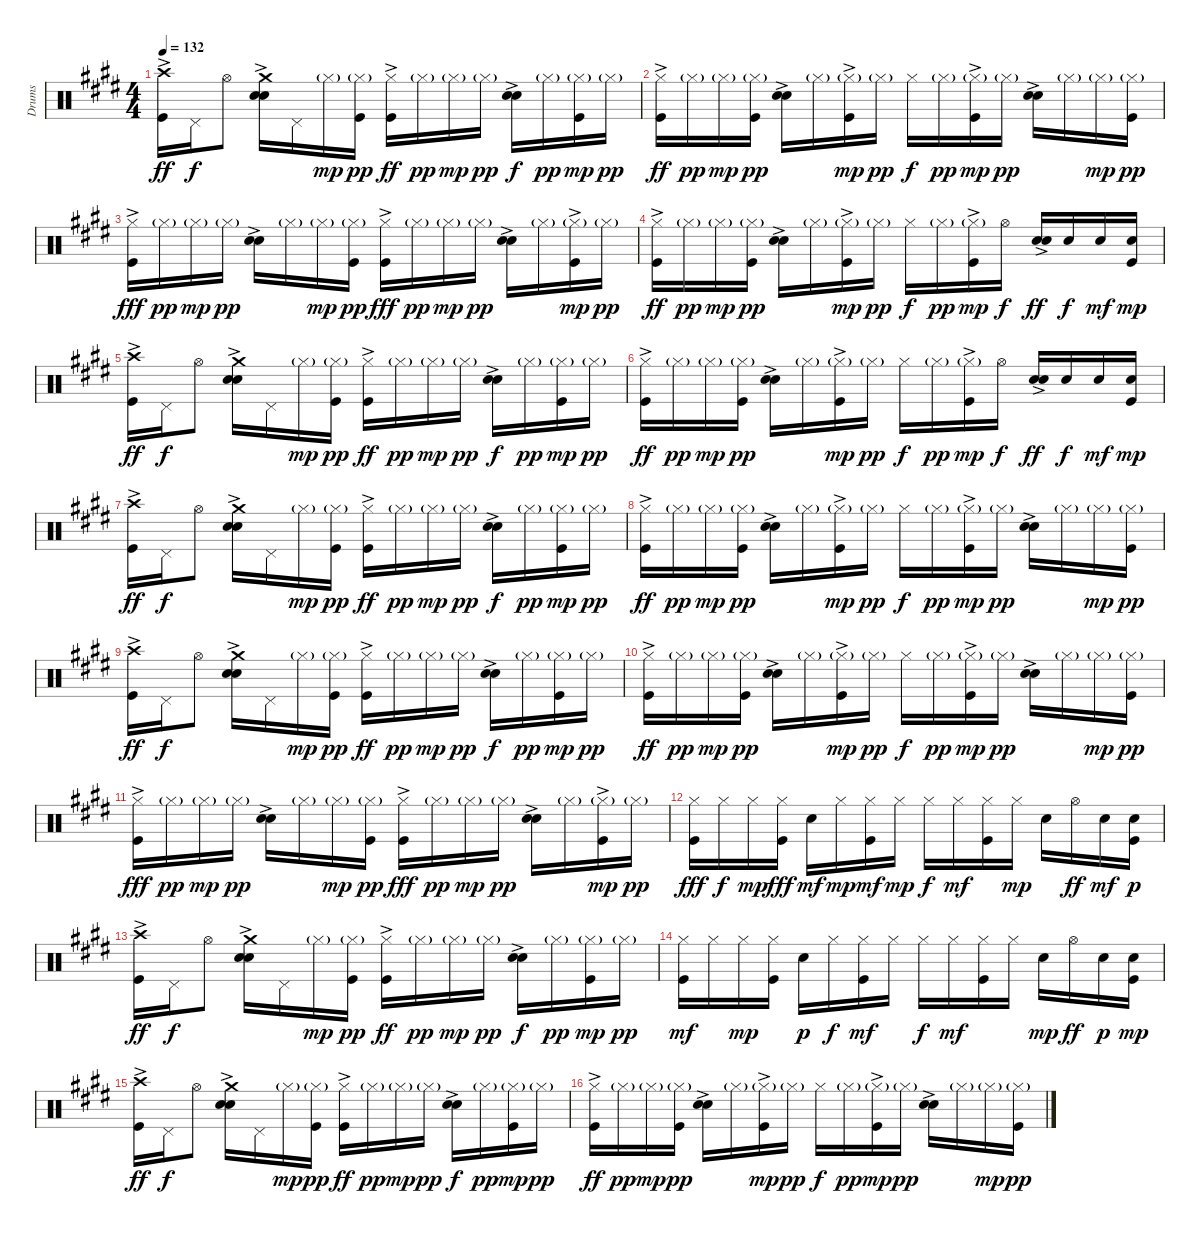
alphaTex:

\track ("Drums" "Drums") {instrument percussion}
\staff {score}
\articulation defaults
\ts (4 4)
\tempo 132
\clef neutral
\ks e
("Kick (hit)"{ac} "Crash high (hit)").16{dy ff} "Pedal Hi-Hat (hit)".16{dy f} "Hi-Hat (open)".8 ("Snare (hit) 2"{ac} "Electric Snare (hit)" "Crash medium (hit)").16 "Pedal Hi-Hat (hit)".16 "Hi-Hat (closed)"{g}.16{dy mp} ("Kick (hit)" "Hi-Hat (closed)"{g}).16{dy pp} ("Kick (hit)"{ac} "Hi-Hat (closed)").16{dy ff} "Hi-Hat (closed)"{g}.16{dy pp} "Hi-Hat (closed)"{g}.16{dy mp} "Hi-Hat (closed)"{g}.16{dy pp} ("Snare (hit) 2"{ac} "Electric Snare (hit)").16{dy f} "Hi-Hat (closed)"{g}.16{dy pp} ("Kick (hit)" "Hi-Hat (closed)"{g}).16{dy mp} "Hi-Hat (closed)"{g}.16{dy pp} |
("Kick (hit)"{ac} "Hi-Hat (closed)").16{dy ff} "Hi-Hat (closed)"{g}.16{dy pp} "Hi-Hat (closed)"{g}.16{dy mp} ("Kick (hit)" "Hi-Hat (closed)"{g}).16{dy pp} ("Snare (hit) 2"{ac} "Electric Snare (hit)").16 "Hi-Hat (closed)"{g}.16 ("Kick (hit)"{ac} "Hi-Hat (closed)"{g}).16{dy mp} "Hi-Hat (closed)"{g}.16{dy pp} "Hi-Hat (closed)".16{dy f} "Hi-Hat (closed)"{g}.16{dy pp} ("Kick (hit)"{ac} "Hi-Hat (closed)"{g}).16{dy mp} "Hi-Hat (closed)"{g}.16{dy pp} ("Snare (hit) 2"{ac} "Electric Snare (hit)").16 "Hi-Hat (closed)"{g}.16 "Hi-Hat (closed)"{g}.16{dy mp} ("Kick (hit)" "Hi-Hat (closed)"{g}).16{dy pp} |
("Kick (hit)"{ac} "Hi-Hat (closed)").16{dy fff} "Hi-Hat (closed)"{g}.16{dy pp} "Hi-Hat (closed)"{g}.16{dy mp} "Hi-Hat (closed)"{g}.16{dy pp} ("Snare (hit) 2"{ac} "Electric Snare (hit)").16 "Hi-Hat (closed)"{g}.16 "Hi-Hat (closed)"{g}.16{dy mp} ("Kick (hit)" "Hi-Hat (closed)"{g}).16{dy pp} ("Kick (hit)"{ac} "Hi-Hat (closed)").16{dy fff} "Hi-Hat (closed)"{g}.16{dy pp} "Hi-Hat (closed)"{g}.16{dy mp} "Hi-Hat (closed)"{g}.16{dy pp} ("Snare (hit) 2"{ac} "Electric Snare (hit)").16 "Hi-Hat (closed)"{g}.16 ("Kick (hit)"{ac} "Hi-Hat (closed)"{g}).16{dy mp} "Hi-Hat (closed)"{g}.16{dy pp} |
("Kick (hit)"{ac} "Hi-Hat (closed)").16{dy ff} "Hi-Hat (closed)"{g}.16{dy pp} "Hi-Hat (closed)"{g}.16{dy mp} ("Kick (hit)" "Hi-Hat (closed)"{g}).16{dy pp} ("Snare (hit) 2"{ac} "Electric Snare (hit)").16 "Hi-Hat (closed)"{g}.16 ("Kick (hit)"{ac} "Hi-Hat (closed)"{g}).16{dy mp} "Hi-Hat (closed)"{g}.16{dy pp} "Hi-Hat (closed)".16{dy f} "Hi-Hat (closed)"{g}.16{dy pp} ("Kick (hit)"{ac} "Hi-Hat (closed)"{g}).16{dy mp} "Hi-Hat (open)".16{dy f} ("Snare (hit) 2"{ac} "Electric Snare (hit)").16{dy ff} "Snare (hit) 2".16{dy f} "Snare (hit) 2".16{dy mf} ("Kick (hit)" "Snare (hit) 2").16{dy mp} |
("Kick (hit)"{ac} "Crash high (hit)").16{dy ff} "Pedal Hi-Hat (hit)".16{dy f} "Hi-Hat (open)".8 ("Snare (hit) 2"{ac} "Electric Snare (hit)" "Crash medium (hit)").16 "Pedal Hi-Hat (hit)".16 "Hi-Hat (closed)"{g}.16{dy mp} ("Kick (hit)" "Hi-Hat (closed)"{g}).16{dy pp} ("Kick (hit)"{ac} "Hi-Hat (closed)").16{dy ff} "Hi-Hat (closed)"{g}.16{dy pp} "Hi-Hat (closed)"{g}.16{dy mp} "Hi-Hat (closed)"{g}.16{dy pp} ("Snare (hit) 2"{ac} "Electric Snare (hit)").16{dy f} "Hi-Hat (closed)"{g}.16{dy pp} ("Kick (hit)" "Hi-Hat (closed)"{g}).16{dy mp} "Hi-Hat (closed)"{g}.16{dy pp} |
("Kick (hit)"{ac} "Hi-Hat (closed)").16{dy ff} "Hi-Hat (closed)"{g}.16{dy pp} "Hi-Hat (closed)"{g}.16{dy mp} ("Kick (hit)" "Hi-Hat (closed)"{g}).16{dy pp} ("Snare (hit) 2"{ac} "Electric Snare (hit)").16 "Hi-Hat (closed)"{g}.16 ("Kick (hit)"{ac} "Hi-Hat (closed)"{g}).16{dy mp} "Hi-Hat (closed)"{g}.16{dy pp} "Hi-Hat (closed)".16{dy f} "Hi-Hat (closed)"{g}.16{dy pp} ("Kick (hit)"{ac} "Hi-Hat (closed)"{g}).16{dy mp} "Hi-Hat (open)".16{dy f} ("Snare (hit) 2"{ac} "Electric Snare (hit)").16{dy ff} "Snare (hit) 2".16{dy f} "Snare (hit) 2".16{dy mf} ("Kick (hit)" "Snare (hit) 2").16{dy mp} |
("Kick (hit)"{ac} "Crash high (hit)").16{dy ff} "Pedal Hi-Hat (hit)".16{dy f} "Hi-Hat (open)".8 ("Snare (hit) 2"{ac} "Electric Snare (hit)" "Crash medium (hit)").16 "Pedal Hi-Hat (hit)".16 "Hi-Hat (closed)"{g}.16{dy mp} ("Kick (hit)" "Hi-Hat (closed)"{g}).16{dy pp} ("Kick (hit)"{ac} "Hi-Hat (closed)").16{dy ff} "Hi-Hat (closed)"{g}.16{dy pp} "Hi-Hat (closed)"{g}.16{dy mp} "Hi-Hat (closed)"{g}.16{dy pp} ("Snare (hit) 2"{ac} "Electric Snare (hit)").16{dy f} "Hi-Hat (closed)"{g}.16{dy pp} ("Kick (hit)" "Hi-Hat (closed)"{g}).16{dy mp} "Hi-Hat (closed)"{g}.16{dy pp} |
("Kick (hit)"{ac} "Hi-Hat (closed)").16{dy ff} "Hi-Hat (closed)"{g}.16{dy pp} "Hi-Hat (closed)"{g}.16{dy mp} ("Kick (hit)" "Hi-Hat (closed)"{g}).16{dy pp} ("Snare (hit) 2"{ac} "Electric Snare (hit)").16 "Hi-Hat (closed)"{g}.16 ("Kick (hit)"{ac} "Hi-Hat (closed)"{g}).16{dy mp} "Hi-Hat (closed)"{g}.16{dy pp} "Hi-Hat (closed)".16{dy f} "Hi-Hat (closed)"{g}.16{dy pp} ("Kick (hit)"{ac} "Hi-Hat (closed)"{g}).16{dy mp} "Hi-Hat (closed)"{g}.16{dy pp} ("Snare (hit) 2"{ac} "Electric Snare (hit)").16 "Hi-Hat (closed)"{g}.16 "Hi-Hat (closed)"{g}.16{dy mp} ("Kick (hit)" "Hi-Hat (closed)"{g}).16{dy pp} |
("Kick (hit)"{ac} "Crash high (hit)").16{dy ff} "Pedal Hi-Hat (hit)".16{dy f} "Hi-Hat (open)".8 ("Snare (hit) 2"{ac} "Electric Snare (hit)" "Crash medium (hit)").16 "Pedal Hi-Hat (hit)".16 "Hi-Hat (closed)"{g}.16{dy mp} ("Kick (hit)" "Hi-Hat (closed)"{g}).16{dy pp} ("Kick (hit)"{ac} "Hi-Hat (closed)").16{dy ff} "Hi-Hat (closed)"{g}.16{dy pp} "Hi-Hat (closed)"{g}.16{dy mp} "Hi-Hat (closed)"{g}.16{dy pp} ("Snare (hit) 2"{ac} "Electric Snare (hit)").16{dy f} "Hi-Hat (closed)"{g}.16{dy pp} ("Kick (hit)" "Hi-Hat (closed)"{g}).16{dy mp} "Hi-Hat (closed)"{g}.16{dy pp} |
("Kick (hit)"{ac} "Hi-Hat (closed)").16{dy ff} "Hi-Hat (closed)"{g}.16{dy pp} "Hi-Hat (closed)"{g}.16{dy mp} ("Kick (hit)" "Hi-Hat (closed)"{g}).16{dy pp} ("Snare (hit) 2"{ac} "Electric Snare (hit)").16 "Hi-Hat (closed)"{g}.16 ("Kick (hit)"{ac} "Hi-Hat (closed)"{g}).16{dy mp} "Hi-Hat (closed)"{g}.16{dy pp} "Hi-Hat (closed)".16{dy f} "Hi-Hat (closed)"{g}.16{dy pp} ("Kick (hit)"{ac} "Hi-Hat (closed)"{g}).16{dy mp} "Hi-Hat (closed)"{g}.16{dy pp} ("Snare (hit) 2"{ac} "Electric Snare (hit)").16 "Hi-Hat (closed)"{g}.16 "Hi-Hat (closed)"{g}.16{dy mp} ("Kick (hit)" "Hi-Hat (closed)"{g}).16{dy pp} |
("Kick (hit)"{ac} "Hi-Hat (closed)").16{dy fff} "Hi-Hat (closed)"{g}.16{dy pp} "Hi-Hat (closed)"{g}.16{dy mp} "Hi-Hat (closed)"{g}.16{dy pp} ("Snare (hit) 2"{ac} "Electric Snare (hit)").16 "Hi-Hat (closed)"{g}.16 "Hi-Hat (closed)"{g}.16{dy mp} ("Kick (hit)" "Hi-Hat (closed)"{g}).16{dy pp} ("Kick (hit)"{ac} "Hi-Hat (closed)").16{dy fff} "Hi-Hat (closed)"{g}.16{dy pp} "Hi-Hat (closed)"{g}.16{dy mp} "Hi-Hat (closed)"{g}.16{dy pp} ("Snare (hit) 2"{ac} "Electric Snare (hit)").16 "Hi-Hat (closed)"{g}.16 ("Kick (hit)"{ac} "Hi-Hat (closed)"{g}).16{dy mp} "Hi-Hat (closed)"{g}.16{dy pp} |
("Kick (hit)" "Hi-Hat (closed)").16{dy fff} "Hi-Hat (closed)".16{dy f} "Hi-Hat (closed)".16{dy mp} ("Kick (hit)" "Hi-Hat (closed)").16{dy fff} "Snare (hit) 2".16{dy mf} "Hi-Hat (closed)".16{dy mp} ("Kick (hit)" "Hi-Hat (closed)").16{dy mf} "Hi-Hat (closed)".16{dy mp} "Hi-Hat (closed)".16{dy f} "Hi-Hat (closed)".16{dy mf} ("Kick (hit)" "Hi-Hat (closed)").16 "Hi-Hat (closed)".16{dy mp} "Snare (hit) 2".16 "Hi-Hat (open)".16{dy ff} "Snare (hit) 2".16{dy mf} ("Kick (hit)" "Snare (hit) 2").16{dy p} |
("Kick (hit)"{ac} "Crash high (hit)").16{dy ff} "Pedal Hi-Hat (hit)".16{dy f} "Hi-Hat (open)".8 ("Snare (hit) 2"{ac} "Electric Snare (hit)" "Crash medium (hit)").16 "Pedal Hi-Hat (hit)".16 "Hi-Hat (closed)"{g}.16{dy mp} ("Kick (hit)" "Hi-Hat (closed)"{g}).16{dy pp} ("Kick (hit)"{ac} "Hi-Hat (closed)").16{dy ff} "Hi-Hat (closed)"{g}.16{dy pp} "Hi-Hat (closed)"{g}.16{dy mp} "Hi-Hat (closed)"{g}.16{dy pp} ("Snare (hit) 2"{ac} "Electric Snare (hit)").16{dy f} "Hi-Hat (closed)"{g}.16{dy pp} ("Kick (hit)" "Hi-Hat (closed)"{g}).16{dy mp} "Hi-Hat (closed)"{g}.16{dy pp} |
("Kick (hit)" "Hi-Hat (closed)").16{dy mf} "Hi-Hat (closed)".16 "Hi-Hat (closed)".16{dy mp} ("Kick (hit)" "Hi-Hat (closed)").16 "Snare (hit) 2".16{dy p} "Hi-Hat (closed)".16{dy f} ("Kick (hit)" "Hi-Hat (closed)").16{dy mf} "Hi-Hat (closed)".16 "Hi-Hat (closed)".16{dy f} "Hi-Hat (closed)".16{dy mf} ("Kick (hit)" "Hi-Hat (closed)").16 "Hi-Hat (closed)".16 "Snare (hit) 2".16{dy mp} "Hi-Hat (open)".16{dy ff} "Snare (hit) 2".16{dy p} ("Kick (hit)" "Snare (hit) 2").16{dy mp} |
("Kick (hit)"{ac} "Crash high (hit)").16{dy ff} "Pedal Hi-Hat (hit)".16{dy f} "Hi-Hat (open)".8 ("Snare (hit) 2"{ac} "Electric Snare (hit)" "Crash medium (hit)").16 "Pedal Hi-Hat (hit)".16 "Hi-Hat (closed)"{g}.16{dy mp} ("Kick (hit)" "Hi-Hat (closed)"{g}).16{dy pp} ("Kick (hit)"{ac} "Hi-Hat (closed)").16{dy ff} "Hi-Hat (closed)"{g}.16{dy pp} "Hi-Hat (closed)"{g}.16{dy mp} "Hi-Hat (closed)"{g}.16{dy pp} ("Snare (hit) 2"{ac} "Electric Snare (hit)").16{dy f} "Hi-Hat (closed)"{g}.16{dy pp} ("Kick (hit)" "Hi-Hat (closed)"{g}).16{dy mp} "Hi-Hat (closed)"{g}.16{dy pp} |
("Kick (hit)"{ac} "Hi-Hat (closed)").16{dy ff} "Hi-Hat (closed)"{g}.16{dy pp} "Hi-Hat (closed)"{g}.16{dy mp} ("Kick (hit)" "Hi-Hat (closed)"{g}).16{dy pp} ("Snare (hit) 2"{ac} "Electric Snare (hit)").16 "Hi-Hat (closed)"{g}.16 ("Kick (hit)"{ac} "Hi-Hat (closed)"{g}).16{dy mp} "Hi-Hat (closed)"{g}.16{dy pp} "Hi-Hat (closed)".16{dy f} "Hi-Hat (closed)"{g}.16{dy pp} ("Kick (hit)"{ac} "Hi-Hat (closed)"{g}).16{dy mp} "Hi-Hat (closed)"{g}.16{dy pp} ("Snare (hit) 2"{ac} "Electric Snare (hit)").16 "Hi-Hat (closed)"{g}.16 "Hi-Hat (closed)"{g}.16{dy mp} ("Kick (hit)" "Hi-Hat (closed)"{g}).16{dy pp}
